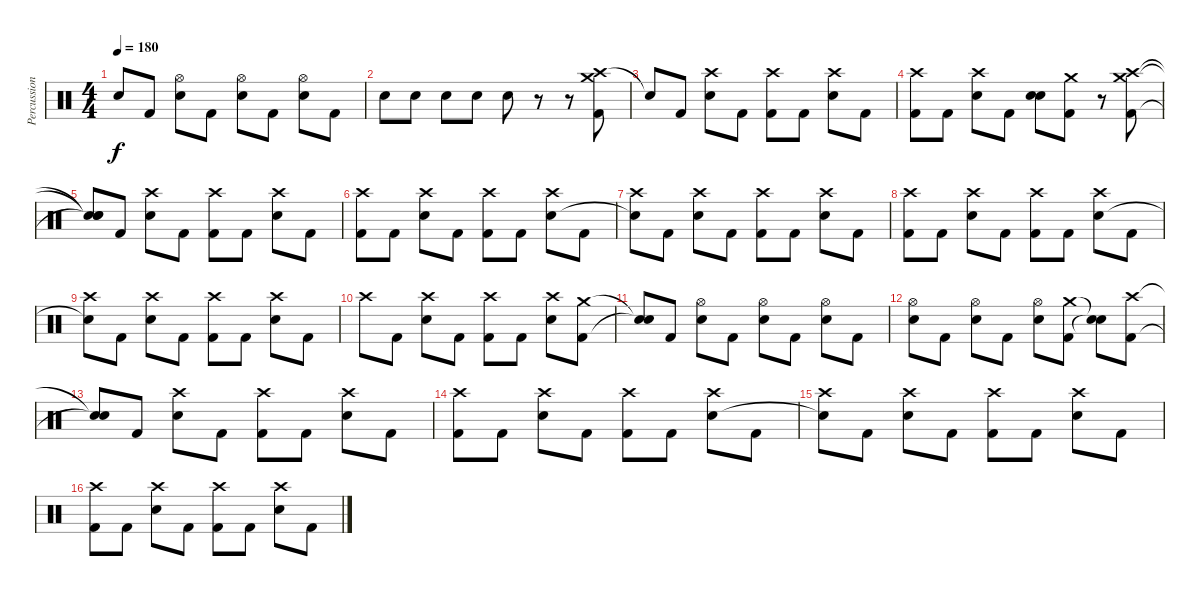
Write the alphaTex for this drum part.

\track ("Percussion" "Percussion") {instrument percussion}
\staff {score}
\articulation defaults
\ts (4 4)
\tempo 180
\clef neutral
\ks c "Snare (hit)"{t}.8{dy f} "Kick (hit) 2".8
("Hi-Hat (open)" "Snare (hit) 2").8 "Kick (hit) 2".8 ("Hi-Hat (open)" "Snare (hit) 2").8 "Kick (hit) 2".8 ("Hi-Hat (open)" "Snare (hit) 2").8 "Kick (hit) 2".8 |
"Snare (hit) 2".8 "Snare (hit) 2".8 "Snare (hit) 2".8 "Snare (hit) 2".8 "Snare (hit) 2".8 r.8 r.8 ("Crash high (hit)" "Crash medium (hit)" "Kick (hit) 2").8 |
"Snare (hit)"{t}.8 "Kick (hit) 2".8 ("Crash high (hit)" "Snare (hit) 2").8 "Kick (hit) 2".8 ("Crash high (hit)" "Kick (hit) 2").8 "Kick (hit) 2".8 ("Crash high (hit)" "Snare (hit) 2").8 "Kick (hit) 2".8 |
("Crash high (hit)" "Kick (hit) 2").8 "Kick (hit) 2".8 ("Crash high (hit)" "Snare (hit) 2").8 "Kick (hit) 2".8 ("Snare (hit) 2" "Snare (hit) 2").8 ("Crash medium (hit)" "Kick (hit) 2").8 r.8 ("Crash medium (hit)" "Crash high (hit)" "Kick (hit) 2").8 |
("Snare (hit)"{t} "Snare (hit)"{t} "Snare (hit)"{t}).8 "Kick (hit) 2".8 ("Crash high (hit)" "Snare (hit) 2").8 "Kick (hit) 2".8 ("Crash high (hit)" "Kick (hit) 2").8 "Kick (hit) 2".8 ("Crash high (hit)" "Snare (hit) 2").8 "Kick (hit) 2".8 |
("Crash high (hit)" "Kick (hit) 2").8 "Kick (hit) 2".8 ("Crash high (hit)" "Snare (hit) 2").8 "Kick (hit) 2".8 ("Crash high (hit)" "Kick (hit) 2").8 "Kick (hit) 2".8 ("Crash high (hit)" "Snare (hit) 2").8 "Kick (hit) 2".8 |
("Crash high (hit)" "Snare (hit)"{t}).8 "Kick (hit) 2".8 ("Crash high (hit)" "Snare (hit) 2").8 "Kick (hit) 2".8 ("Crash high (hit)" "Kick (hit) 2").8 "Kick (hit) 2".8 ("Crash high (hit)" "Snare (hit) 2").8 "Kick (hit) 2".8 |
("Crash high (hit)" "Kick (hit) 2").8 "Kick (hit) 2".8 ("Crash high (hit)" "Snare (hit) 2").8 "Kick (hit) 2".8 ("Crash high (hit)" "Kick (hit) 2").8 "Kick (hit) 2".8 ("Crash high (hit)" "Snare (hit) 2").8 "Kick (hit) 2".8 |
("Crash high (hit)" "Snare (hit)"{t}).8 "Kick (hit) 2".8 ("Crash high (hit)" "Snare (hit) 2").8 "Kick (hit) 2".8 ("Crash high (hit)" "Kick (hit) 2").8 "Kick (hit) 2".8 ("Crash high (hit)" "Snare (hit) 2").8 "Kick (hit) 2".8 |
"Crash high (hit)".8 "Kick (hit) 2".8 ("Crash high (hit)" "Snare (hit) 2").8 "Kick (hit) 2".8 ("Crash high (hit)" "Kick (hit) 2").8 "Kick (hit) 2".8 ("Crash high (hit)" "Snare (hit) 2").8 ("Crash medium (hit)" "Kick (hit) 2").8 |
("Snare (hit)"{t} "Snare (hit)"{t}).8 "Kick (hit) 2".8 ("Hi-Hat (open)" "Snare (hit) 2").8 "Kick (hit) 2".8 ("Hi-Hat (open)" "Snare (hit) 2").8 "Kick (hit) 2".8 ("Hi-Hat (open)" "Snare (hit) 2").8 "Kick (hit) 2".8 |
("Hi-Hat (open)" "Snare (hit) 2").8 "Kick (hit) 2".8 ("Hi-Hat (open)" "Snare (hit) 2").8 "Kick (hit) 2".8 ("Hi-Hat (open)" "Snare (hit) 2").8 ("Crash medium (hit)" "Kick (hit) 2").8 ("Snare (hit)"{t} "Snare (hit)"{t}).8 ("Crash high (hit)" "Kick (hit) 2").8 |
("Snare (hit)"{t} "Snare (hit)"{t}).8 "Kick (hit) 2".8 ("Crash high (hit)" "Snare (hit) 2").8 "Kick (hit) 2".8 ("Crash high (hit)" "Kick (hit) 2").8 "Kick (hit) 2".8 ("Crash high (hit)" "Snare (hit) 2").8 "Kick (hit) 2".8 |
("Crash high (hit)" "Kick (hit) 2").8 "Kick (hit) 2".8 ("Crash high (hit)" "Snare (hit) 2").8 "Kick (hit) 2".8 ("Crash high (hit)" "Kick (hit) 2").8 "Kick (hit) 2".8 ("Crash high (hit)" "Snare (hit) 2").8 "Kick (hit) 2".8 |
("Crash high (hit)" "Snare (hit)"{t}).8 "Kick (hit) 2".8 ("Crash high (hit)" "Snare (hit) 2").8 "Kick (hit) 2".8 ("Crash high (hit)" "Kick (hit) 2").8 "Kick (hit) 2".8 ("Crash high (hit)" "Snare (hit) 2").8 "Kick (hit) 2".8 |
("Crash high (hit)" "Kick (hit) 2").8 "Kick (hit) 2".8 ("Crash high (hit)" "Snare (hit) 2").8 "Kick (hit) 2".8 ("Crash high (hit)" "Kick (hit) 2").8 "Kick (hit) 2".8 ("Crash high (hit)" "Snare (hit) 2").8 "Kick (hit) 2".8
